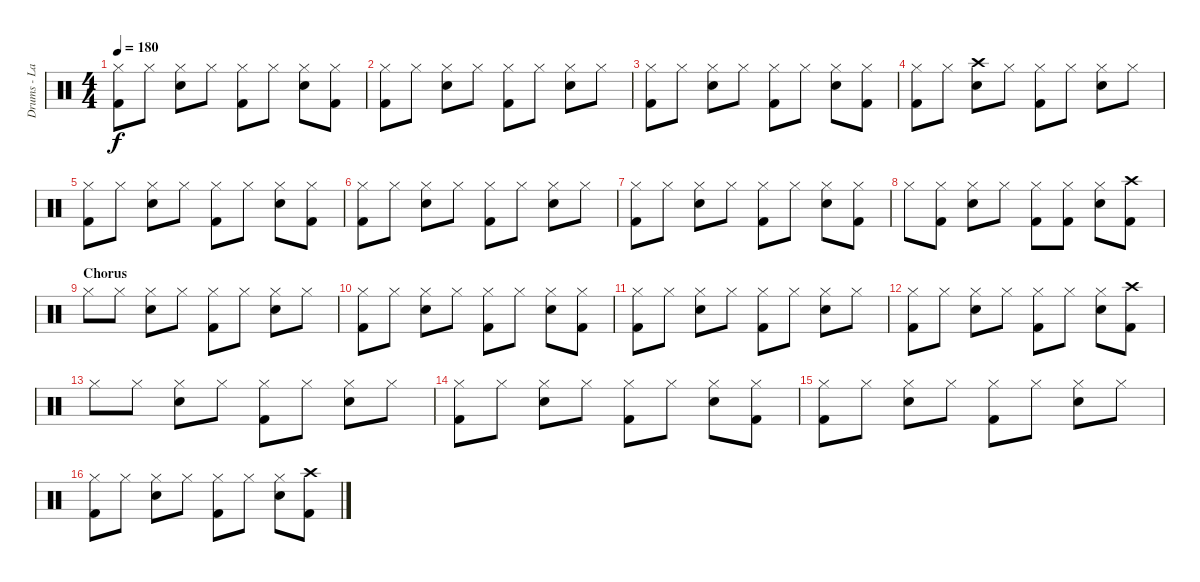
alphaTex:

\track ("Drums - Lars" "Drums - La") {instrument percussion}
\staff {score}
\articulation defaults
\ts (4 4)
\tempo 180
\clef neutral
\ks c
("Hi-Hat (closed)" "Kick (hit) 2").8{dy f} "Hi-Hat (closed)".8 ("Hi-Hat (closed)" "Snare (hit) 2").8 "Hi-Hat (closed)".8 ("Hi-Hat (closed)" "Kick (hit) 2").8 "Hi-Hat (closed)".8 ("Hi-Hat (closed)" "Snare (hit) 2").8 ("Hi-Hat (closed)" "Kick (hit) 2").8 |
("Hi-Hat (closed)" "Kick (hit) 2").8 "Hi-Hat (closed)".8 ("Hi-Hat (closed)" "Snare (hit) 2").8 "Hi-Hat (closed)".8 ("Hi-Hat (closed)" "Kick (hit) 2").8 "Hi-Hat (closed)".8 ("Hi-Hat (closed)" "Snare (hit) 2").8 "Hi-Hat (closed)".8 |
("Hi-Hat (closed)" "Kick (hit) 2").8 "Hi-Hat (closed)".8 ("Hi-Hat (closed)" "Snare (hit) 2").8 "Hi-Hat (closed)".8 ("Hi-Hat (closed)" "Kick (hit) 2").8 "Hi-Hat (closed)".8 ("Hi-Hat (closed)" "Snare (hit) 2").8 ("Hi-Hat (closed)" "Kick (hit) 2").8 |
("Hi-Hat (closed)" "Kick (hit) 2").8 "Hi-Hat (closed)".8 ("Crash high (hit)" "Snare (hit) 2").8 "Hi-Hat (closed)".8 ("Hi-Hat (closed)" "Kick (hit) 2").8 "Hi-Hat (closed)".8 ("Hi-Hat (closed)" "Snare (hit) 2").8 "Hi-Hat (closed)".8 |
("Hi-Hat (closed)" "Kick (hit) 2").8 "Hi-Hat (closed)".8 ("Hi-Hat (closed)" "Snare (hit) 2").8 "Hi-Hat (closed)".8 ("Hi-Hat (closed)" "Kick (hit) 2").8 "Hi-Hat (closed)".8 ("Hi-Hat (closed)" "Snare (hit) 2").8 ("Hi-Hat (closed)" "Kick (hit) 2").8 |
("Hi-Hat (closed)" "Kick (hit) 2").8 "Hi-Hat (closed)".8 ("Hi-Hat (closed)" "Snare (hit) 2").8 "Hi-Hat (closed)".8 ("Hi-Hat (closed)" "Kick (hit) 2").8 "Hi-Hat (closed)".8 ("Hi-Hat (closed)" "Snare (hit) 2").8 "Hi-Hat (closed)".8 |
("Hi-Hat (closed)" "Kick (hit) 2").8 "Hi-Hat (closed)".8 ("Hi-Hat (closed)" "Snare (hit) 2").8 "Hi-Hat (closed)".8 ("Hi-Hat (closed)" "Kick (hit) 2").8 "Hi-Hat (closed)".8 ("Hi-Hat (closed)" "Snare (hit) 2").8 ("Hi-Hat (closed)" "Kick (hit) 2").8 |
"Hi-Hat (closed)".8 ("Hi-Hat (closed)" "Kick (hit) 2").8 ("Hi-Hat (closed)" "Snare (hit) 2").8 "Hi-Hat (closed)".8 ("Hi-Hat (closed)" "Kick (hit) 2").8 ("Hi-Hat (closed)" "Kick (hit) 2").8 ("Hi-Hat (closed)" "Snare (hit) 2").8 ("Crash high (hit)" "Kick (hit) 2").8 |
\section ("" "Chorus")
"Hi-Hat (closed)".8 "Hi-Hat (closed)".8 ("Hi-Hat (closed)" "Snare (hit) 2").8 "Hi-Hat (closed)".8 ("Hi-Hat (closed)" "Kick (hit) 2").8 "Hi-Hat (closed)".8 ("Hi-Hat (closed)" "Snare (hit) 2").8 "Hi-Hat (closed)".8 |
("Hi-Hat (closed)" "Kick (hit) 2").8 "Hi-Hat (closed)".8 ("Hi-Hat (closed)" "Snare (hit) 2").8 "Hi-Hat (closed)".8 ("Hi-Hat (closed)" "Kick (hit) 2").8 "Hi-Hat (closed)".8 ("Hi-Hat (closed)" "Snare (hit) 2").8 ("Hi-Hat (closed)" "Kick (hit) 2").8 |
("Hi-Hat (closed)" "Kick (hit) 2").8 "Hi-Hat (closed)".8 ("Hi-Hat (closed)" "Snare (hit) 2").8 "Hi-Hat (closed)".8 ("Hi-Hat (closed)" "Kick (hit) 2").8 "Hi-Hat (closed)".8 ("Hi-Hat (closed)" "Snare (hit) 2").8 "Hi-Hat (closed)".8 |
("Hi-Hat (closed)" "Kick (hit) 2").8 "Hi-Hat (closed)".8 ("Hi-Hat (closed)" "Snare (hit) 2").8 "Hi-Hat (closed)".8 ("Hi-Hat (closed)" "Kick (hit) 2").8 "Hi-Hat (closed)".8 ("Hi-Hat (closed)" "Snare (hit) 2").8 ("Crash high (hit)" "Kick (hit) 2").8 |
"Hi-Hat (closed)".8 "Hi-Hat (closed)".8 ("Hi-Hat (closed)" "Snare (hit) 2").8 "Hi-Hat (closed)".8 ("Hi-Hat (closed)" "Kick (hit) 2").8 "Hi-Hat (closed)".8 ("Hi-Hat (closed)" "Snare (hit) 2").8 "Hi-Hat (closed)".8 |
("Hi-Hat (closed)" "Kick (hit) 2").8 "Hi-Hat (closed)".8 ("Hi-Hat (closed)" "Snare (hit) 2").8 "Hi-Hat (closed)".8 ("Hi-Hat (closed)" "Kick (hit) 2").8 "Hi-Hat (closed)".8 ("Hi-Hat (closed)" "Snare (hit) 2").8 ("Hi-Hat (closed)" "Kick (hit) 2").8 |
("Hi-Hat (closed)" "Kick (hit) 2").8 "Hi-Hat (closed)".8 ("Hi-Hat (closed)" "Snare (hit) 2").8 "Hi-Hat (closed)".8 ("Hi-Hat (closed)" "Kick (hit) 2").8 "Hi-Hat (closed)".8 ("Hi-Hat (closed)" "Snare (hit) 2").8 "Hi-Hat (closed)".8 |
("Hi-Hat (closed)" "Kick (hit) 2").8 "Hi-Hat (closed)".8 ("Hi-Hat (closed)" "Snare (hit) 2").8 "Hi-Hat (closed)".8 ("Hi-Hat (closed)" "Kick (hit) 2").8 "Hi-Hat (closed)".8 ("Hi-Hat (closed)" "Snare (hit) 2").8 ("Crash high (hit)" "Kick (hit) 2").8
